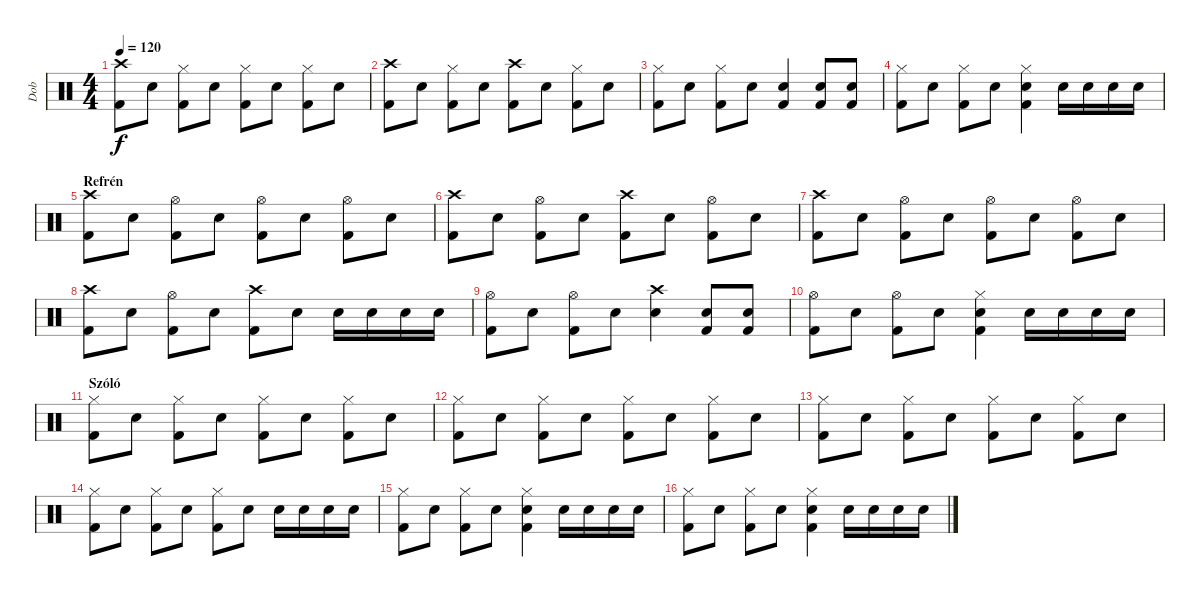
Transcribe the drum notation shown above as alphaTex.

\track ("Dob" "Dob") {instrument percussion}
\staff {score}
\articulation defaults
\ts (4 4)
\tempo 120
\clef neutral
\ks c
("Kick (hit) 2" "Crash high (hit)").8{dy f} "Snare (hit) 2".8 ("Kick (hit) 2" "Hi-Hat (closed)").8 "Snare (hit) 2".8 ("Kick (hit) 2" "Hi-Hat (closed)").8 "Snare (hit) 2".8 ("Kick (hit) 2" "Hi-Hat (closed)").8 "Snare (hit) 2".8 |
("Kick (hit) 2" "Crash high (hit)").8 "Snare (hit) 2".8 ("Kick (hit) 2" "Hi-Hat (closed)").8 "Snare (hit) 2".8 ("Kick (hit) 2" "Crash high (hit)").8 "Snare (hit) 2".8 ("Kick (hit) 2" "Hi-Hat (closed)").8 "Snare (hit) 2".8 |
("Kick (hit) 2" "Hi-Hat (closed)").8 "Snare (hit) 2".8 ("Kick (hit) 2" "Hi-Hat (closed)").8 "Snare (hit) 2".8 ("Snare (hit) 2" "Kick (hit) 2").4 ("Kick (hit) 2" "Snare (hit) 2").8 ("Kick (hit) 2" "Snare (hit) 2").8 |
("Kick (hit) 2" "Hi-Hat (closed)").8 "Snare (hit) 2".8 ("Kick (hit) 2" "Hi-Hat (closed)").8 "Snare (hit) 2".8 ("Snare (hit) 2" "Hi-Hat (closed)" "Kick (hit) 2").4 "Snare (hit) 2".16 "Snare (hit) 2".16 "Snare (hit) 2".16 "Snare (hit) 2".16 |
\section ("" "Refrén")
("Kick (hit) 2" "Crash high (hit)").8 "Snare (hit) 2".8 ("Kick (hit) 2" "Hi-Hat (open)").8 "Snare (hit) 2".8 ("Kick (hit) 2" "Hi-Hat (open)").8 "Snare (hit) 2".8 ("Kick (hit) 2" "Hi-Hat (open)").8 "Snare (hit) 2".8 |
("Kick (hit) 2" "Crash high (hit)").8 "Snare (hit) 2".8 ("Kick (hit) 2" "Hi-Hat (open)").8 "Snare (hit) 2".8 ("Kick (hit) 2" "Crash high (hit)").8 "Snare (hit) 2".8 ("Kick (hit) 2" "Hi-Hat (open)").8 "Snare (hit) 2".8 |
("Kick (hit) 2" "Crash high (hit)").8 "Snare (hit) 2".8 ("Kick (hit) 2" "Hi-Hat (open)").8 "Snare (hit) 2".8 ("Kick (hit) 2" "Hi-Hat (open)").8 "Snare (hit) 2".8 ("Kick (hit) 2" "Hi-Hat (open)").8 "Snare (hit) 2".8 |
("Kick (hit) 2" "Crash high (hit)").8 "Snare (hit) 2".8 ("Kick (hit) 2" "Hi-Hat (open)").8 "Snare (hit) 2".8 ("Kick (hit) 2" "Crash high (hit)").8 "Snare (hit) 2".8 "Snare (hit) 2".16 "Snare (hit) 2".16 "Snare (hit) 2".16 "Snare (hit) 2".16 |
("Kick (hit) 2" "Hi-Hat (open)").8 "Snare (hit) 2".8 ("Kick (hit) 2" "Hi-Hat (open)").8 "Snare (hit) 2".8 ("Snare (hit) 2" "Crash high (hit)").4 ("Snare (hit) 2" "Kick (hit) 2").8 ("Snare (hit) 2" "Kick (hit) 2").8 |
("Kick (hit) 2" "Hi-Hat (open)").8 "Snare (hit) 2".8 ("Kick (hit) 2" "Hi-Hat (open)").8 "Snare (hit) 2".8 ("Snare (hit) 2" "Hi-Hat (closed)" "Kick (hit) 2").4 "Snare (hit) 2".16 "Snare (hit) 2".16 "Snare (hit) 2".16 "Snare (hit) 2".16 |
\section ("" "Szóló")
("Kick (hit) 2" "Hi-Hat (closed)").8 "Snare (hit) 2".8 ("Kick (hit) 2" "Hi-Hat (closed)").8 "Snare (hit) 2".8 ("Kick (hit) 2" "Hi-Hat (closed)").8 "Snare (hit) 2".8 ("Kick (hit) 2" "Hi-Hat (closed)").8 "Snare (hit) 2".8 |
("Kick (hit) 2" "Hi-Hat (closed)").8 "Snare (hit) 2".8 ("Kick (hit) 2" "Hi-Hat (closed)").8 "Snare (hit) 2".8 ("Kick (hit) 2" "Hi-Hat (closed)").8 "Snare (hit) 2".8 ("Kick (hit) 2" "Hi-Hat (closed)").8 "Snare (hit) 2".8 |
("Kick (hit) 2" "Hi-Hat (closed)").8 "Snare (hit) 2".8 ("Kick (hit) 2" "Hi-Hat (closed)").8 "Snare (hit) 2".8 ("Kick (hit) 2" "Hi-Hat (closed)").8 "Snare (hit) 2".8 ("Kick (hit) 2" "Hi-Hat (closed)").8 "Snare (hit) 2".8 |
("Kick (hit) 2" "Hi-Hat (closed)").8 "Snare (hit) 2".8 ("Kick (hit) 2" "Hi-Hat (closed)").8 "Snare (hit) 2".8 ("Kick (hit) 2" "Hi-Hat (closed)").8 "Snare (hit) 2".8 "Snare (hit) 2".16 "Snare (hit) 2".16 "Snare (hit) 2".16 "Snare (hit) 2".16 |
("Kick (hit) 2" "Hi-Hat (closed)").8 "Snare (hit) 2".8 ("Kick (hit) 2" "Hi-Hat (closed)").8 "Snare (hit) 2".8 ("Snare (hit) 2" "Hi-Hat (closed)" "Kick (hit) 2").4 "Snare (hit) 2".16 "Snare (hit) 2".16 "Snare (hit) 2".16 "Snare (hit) 2".16 |
("Kick (hit) 2" "Hi-Hat (closed)").8 "Snare (hit) 2".8 ("Kick (hit) 2" "Hi-Hat (closed)").8 "Snare (hit) 2".8 ("Snare (hit) 2" "Hi-Hat (closed)" "Kick (hit) 2").4 "Snare (hit) 2".16 "Snare (hit) 2".16 "Snare (hit) 2".16 "Snare (hit) 2".16
